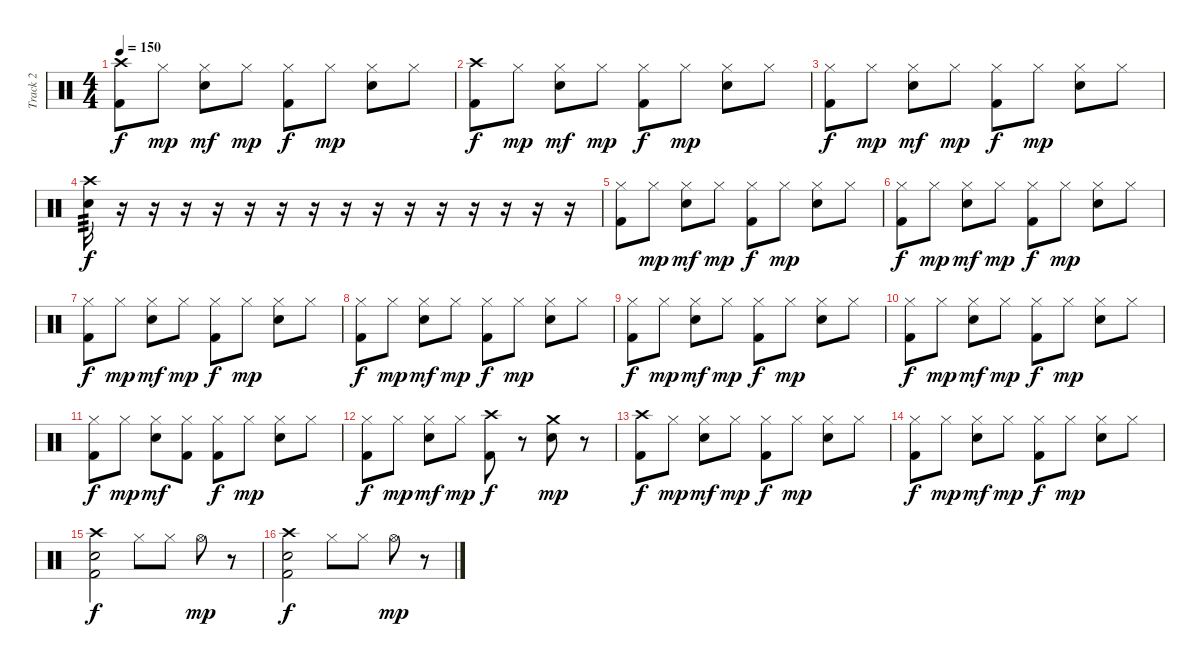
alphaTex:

\track ("Track 2" "Track 2") {instrument percussion}
\staff {score}
\articulation defaults
\ts (4 4)
\tempo 150
\clef neutral
\ks c
("Crash high (hit)" "Kick (hit) 2").8{dy f} "Hi-Hat (closed)".8{dy mp} ("Hi-Hat (closed)" "Electric Snare (hit)").8{dy mf} "Hi-Hat (closed)".8{dy mp} ("Hi-Hat (closed)" "Kick (hit) 2").8{dy f} "Hi-Hat (closed)".8{dy mp} ("Hi-Hat (closed)" "Electric Snare (hit)").8 "Hi-Hat (closed)".8 |
("Crash high (hit)" "Kick (hit) 2").8{dy f} "Hi-Hat (closed)".8{dy mp} ("Hi-Hat (closed)" "Electric Snare (hit)").8{dy mf} "Hi-Hat (closed)".8{dy mp} ("Hi-Hat (closed)" "Kick (hit) 2").8{dy f} "Hi-Hat (closed)".8{dy mp} ("Hi-Hat (closed)" "Electric Snare (hit)").8 "Hi-Hat (closed)".8 |
("Hi-Hat (closed)" "Kick (hit) 2").8{dy f} "Hi-Hat (closed)".8{dy mp} ("Hi-Hat (closed)" "Electric Snare (hit)").8{dy mf} "Hi-Hat (closed)".8{dy mp} ("Hi-Hat (closed)" "Kick (hit) 2").8{dy f} "Hi-Hat (closed)".8{dy mp} ("Hi-Hat (closed)" "Electric Snare (hit)").8 "Hi-Hat (closed)".8 |
("Crash high (hit)" "Electric Snare (hit)").16{tp 3 dy f} r.16 r.16 r.16 r.16 r.16 r.16 r.16 r.16 r.16 r.16 r.16 r.16 r.16 r.16 r.16 |
("Hi-Hat (closed)" "Kick (hit) 2").8 "Hi-Hat (closed)".8{dy mp} ("Hi-Hat (closed)" "Electric Snare (hit)").8{dy mf} "Hi-Hat (closed)".8{dy mp} ("Hi-Hat (closed)" "Kick (hit) 2").8{dy f} "Hi-Hat (closed)".8{dy mp} ("Hi-Hat (closed)" "Electric Snare (hit)").8 "Hi-Hat (closed)".8 |
("Hi-Hat (closed)" "Kick (hit) 2").8{dy f} "Hi-Hat (closed)".8{dy mp} ("Hi-Hat (closed)" "Electric Snare (hit)").8{dy mf} "Hi-Hat (closed)".8{dy mp} ("Hi-Hat (closed)" "Kick (hit) 2").8{dy f} "Hi-Hat (closed)".8{dy mp} ("Hi-Hat (closed)" "Electric Snare (hit)").8 "Hi-Hat (closed)".8 |
("Hi-Hat (closed)" "Kick (hit) 2").8{dy f} "Hi-Hat (closed)".8{dy mp} ("Hi-Hat (closed)" "Electric Snare (hit)").8{dy mf} "Hi-Hat (closed)".8{dy mp} ("Hi-Hat (closed)" "Kick (hit) 2").8{dy f} "Hi-Hat (closed)".8{dy mp} ("Hi-Hat (closed)" "Electric Snare (hit)").8 "Hi-Hat (closed)".8 |
("Hi-Hat (closed)" "Kick (hit) 2").8{dy f} "Hi-Hat (closed)".8{dy mp} ("Hi-Hat (closed)" "Electric Snare (hit)").8{dy mf} "Hi-Hat (closed)".8{dy mp} ("Hi-Hat (closed)" "Kick (hit) 2").8{dy f} "Hi-Hat (closed)".8{dy mp} ("Hi-Hat (closed)" "Electric Snare (hit)").8 "Hi-Hat (closed)".8 |
("Hi-Hat (closed)" "Kick (hit) 2").8{dy f} "Hi-Hat (closed)".8{dy mp} ("Hi-Hat (closed)" "Electric Snare (hit)").8{dy mf} "Hi-Hat (closed)".8{dy mp} ("Hi-Hat (closed)" "Kick (hit) 2").8{dy f} "Hi-Hat (closed)".8{dy mp} ("Hi-Hat (closed)" "Electric Snare (hit)").8 "Hi-Hat (closed)".8 |
("Hi-Hat (closed)" "Kick (hit) 2").8{dy f} "Hi-Hat (closed)".8{dy mp} ("Hi-Hat (closed)" "Electric Snare (hit)").8{dy mf} "Hi-Hat (closed)".8{dy mp} ("Hi-Hat (closed)" "Kick (hit) 2").8{dy f} "Hi-Hat (closed)".8{dy mp} ("Hi-Hat (closed)" "Electric Snare (hit)").8 "Hi-Hat (closed)".8 |
("Hi-Hat (closed)" "Kick (hit) 2").8{dy f} "Hi-Hat (closed)".8{dy mp} ("Hi-Hat (closed)" "Electric Snare (hit)").8{dy mf} ("Hi-Hat (closed)" "Kick (hit) 2").8 ("Hi-Hat (closed)" "Kick (hit) 2").8{dy f} "Hi-Hat (closed)".8{dy mp} ("Hi-Hat (closed)" "Electric Snare (hit)").8 "Hi-Hat (closed)".8 |
("Hi-Hat (closed)" "Kick (hit) 2").8{dy f} "Hi-Hat (closed)".8{dy mp} ("Hi-Hat (closed)" "Electric Snare (hit)").8{dy mf} "Hi-Hat (closed)".8{dy mp} ("Crash high (hit)" "Kick (hit) 2").8{dy f} r.8 ("Crash medium (hit)" "Electric Snare (hit)").8{dy mp} r.8 |
("Crash high (hit)" "Kick (hit) 2").8{dy f} "Hi-Hat (closed)".8{dy mp} ("Hi-Hat (closed)" "Electric Snare (hit)").8{dy mf} "Hi-Hat (closed)".8{dy mp} ("Hi-Hat (closed)" "Kick (hit) 2").8{dy f} "Hi-Hat (closed)".8{dy mp} ("Hi-Hat (closed)" "Electric Snare (hit)").8 "Hi-Hat (closed)".8 |
("Hi-Hat (closed)" "Kick (hit) 2").8{dy f} "Hi-Hat (closed)".8{dy mp} ("Hi-Hat (closed)" "Electric Snare (hit)").8{dy mf} "Hi-Hat (closed)".8{dy mp} ("Hi-Hat (closed)" "Kick (hit) 2").8{dy f} "Hi-Hat (closed)".8{dy mp} ("Hi-Hat (closed)" "Electric Snare (hit)").8 "Hi-Hat (closed)".8 |
("Crash high (hit)" "Electric Snare (hit)" "Kick (hit) 2").2{dy f} "Hi-Hat (closed)".8 "Hi-Hat (closed)".8 "Hi-Hat (open)".8{dy mp} r.8 |
("Crash high (hit)" "Electric Snare (hit)" "Kick (hit) 2").2{dy f} "Hi-Hat (closed)".8 "Hi-Hat (closed)".8 "Hi-Hat (open)".8{dy mp} r.8
